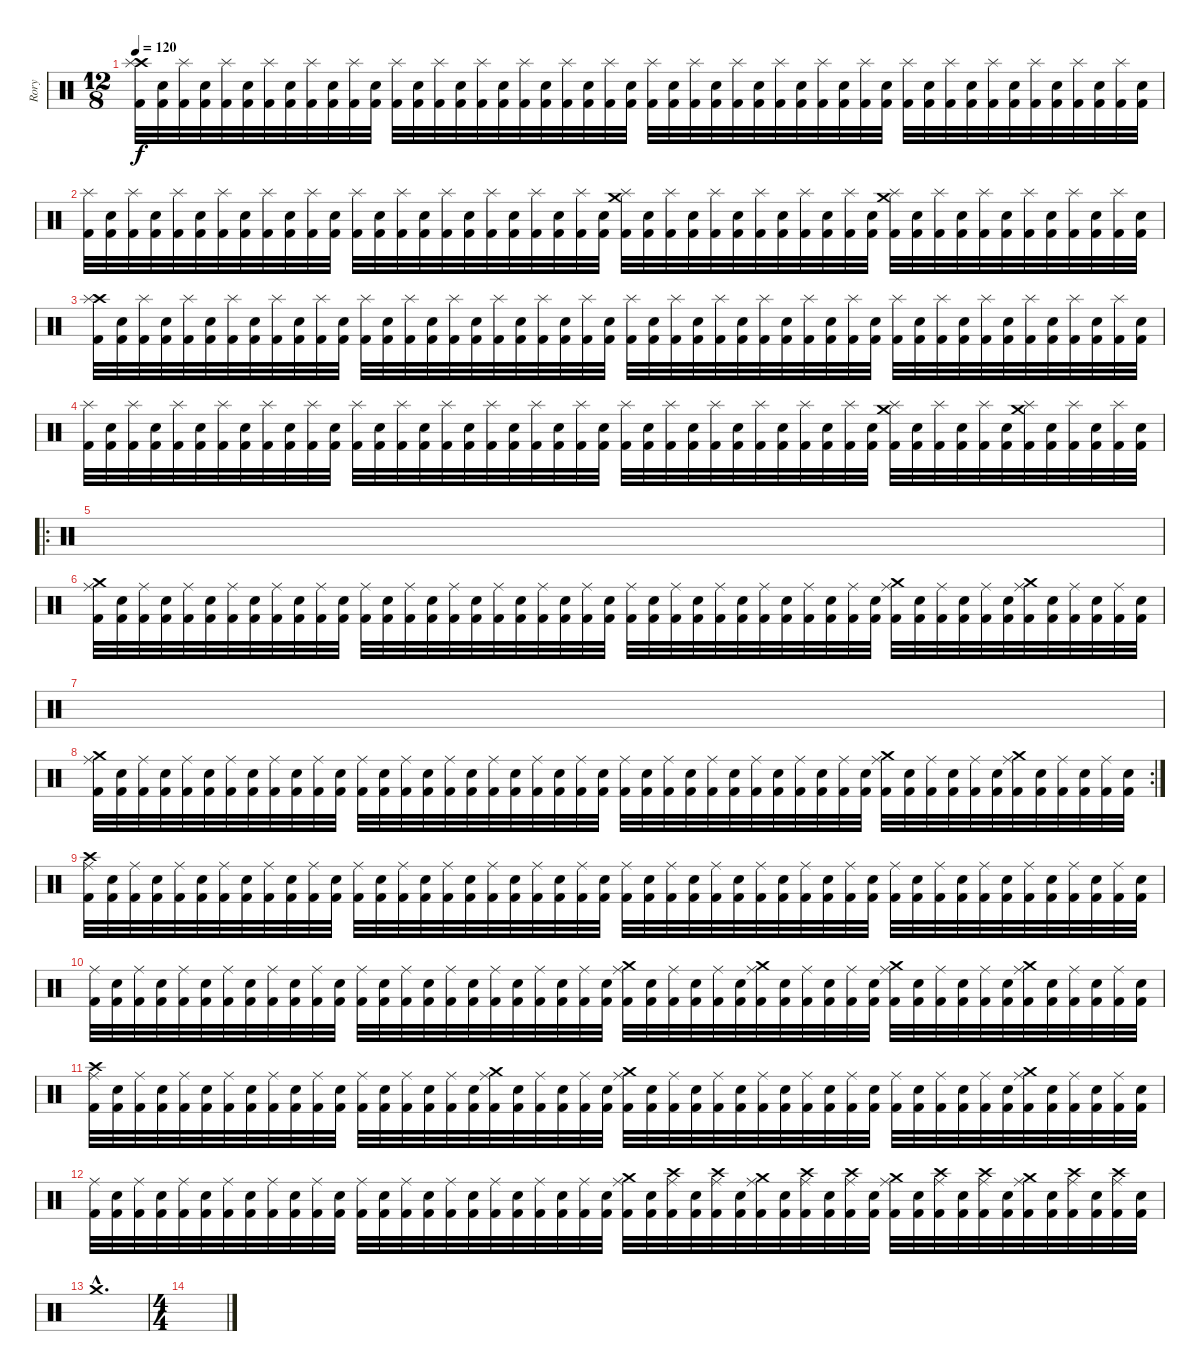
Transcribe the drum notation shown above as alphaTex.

\track ("Rory" "Rory") {instrument percussion}
\staff {score}
\articulation defaults
\ts (12 8)
\tempo 120
\clef neutral
\ks c
("Kick (hit) 2" "Crash high (hit)" "Splash (hit)").32{dy f} ("Kick (hit) 2" "Electric Snare (hit)").32 ("Kick (hit) 2" "Splash (hit)").32 ("Kick (hit) 2" "Electric Snare (hit)").32 ("Kick (hit) 2" "Splash (hit)").32 ("Kick (hit) 2" "Electric Snare (hit)").32 ("Kick (hit) 2" "Splash (hit)").32 ("Kick (hit) 2" "Electric Snare (hit)").32 ("Kick (hit) 2" "Splash (hit)").32 ("Kick (hit) 2" "Electric Snare (hit)").32 ("Kick (hit) 2" "Splash (hit)").32 ("Kick (hit) 2" "Electric Snare (hit)").32 ("Kick (hit) 2" "Splash (hit)").32 ("Kick (hit) 2" "Electric Snare (hit)").32 ("Kick (hit) 2" "Splash (hit)").32 ("Kick (hit) 2" "Electric Snare (hit)").32 ("Kick (hit) 2" "Splash (hit)").32 ("Kick (hit) 2" "Electric Snare (hit)").32 ("Kick (hit) 2" "Splash (hit)").32 ("Kick (hit) 2" "Electric Snare (hit)").32 ("Kick (hit) 2" "Splash (hit)").32 ("Kick (hit) 2" "Electric Snare (hit)").32 ("Kick (hit) 2" "Splash (hit)").32 ("Kick (hit) 2" "Electric Snare (hit)").32 ("Kick (hit) 2" "Splash (hit)").32 ("Kick (hit) 2" "Electric Snare (hit)").32 ("Kick (hit) 2" "Splash (hit)").32 ("Kick (hit) 2" "Electric Snare (hit)").32 ("Kick (hit) 2" "Splash (hit)").32 ("Kick (hit) 2" "Electric Snare (hit)").32 ("Kick (hit) 2" "Splash (hit)").32 ("Kick (hit) 2" "Electric Snare (hit)").32 ("Kick (hit) 2" "Splash (hit)").32 ("Kick (hit) 2" "Electric Snare (hit)").32 ("Kick (hit) 2" "Splash (hit)").32 ("Kick (hit) 2" "Electric Snare (hit)").32 ("Kick (hit) 2" "Splash (hit)").32 ("Kick (hit) 2" "Electric Snare (hit)").32 ("Kick (hit) 2" "Splash (hit)").32 ("Kick (hit) 2" "Electric Snare (hit)").32 ("Kick (hit) 2" "Splash (hit)").32 ("Kick (hit) 2" "Electric Snare (hit)").32 ("Kick (hit) 2" "Splash (hit)").32 ("Kick (hit) 2" "Electric Snare (hit)").32 ("Kick (hit) 2" "Splash (hit)").32 ("Kick (hit) 2" "Electric Snare (hit)").32 ("Kick (hit) 2" "Splash (hit)").32 ("Kick (hit) 2" "Electric Snare (hit)").32 |
("Kick (hit) 2" "Splash (hit)").32 ("Kick (hit) 2" "Electric Snare (hit)").32 ("Kick (hit) 2" "Splash (hit)").32 ("Kick (hit) 2" "Electric Snare (hit)").32 ("Kick (hit) 2" "Splash (hit)").32 ("Kick (hit) 2" "Electric Snare (hit)").32 ("Kick (hit) 2" "Splash (hit)").32 ("Kick (hit) 2" "Electric Snare (hit)").32 ("Kick (hit) 2" "Splash (hit)").32 ("Kick (hit) 2" "Electric Snare (hit)").32 ("Kick (hit) 2" "Splash (hit)").32 ("Kick (hit) 2" "Electric Snare (hit)").32 ("Kick (hit) 2" "Splash (hit)").32 ("Kick (hit) 2" "Electric Snare (hit)").32 ("Kick (hit) 2" "Splash (hit)").32 ("Kick (hit) 2" "Electric Snare (hit)").32 ("Kick (hit) 2" "Splash (hit)").32 ("Kick (hit) 2" "Electric Snare (hit)").32 ("Kick (hit) 2" "Splash (hit)").32 ("Kick (hit) 2" "Electric Snare (hit)").32 ("Kick (hit) 2" "Splash (hit)").32 ("Kick (hit) 2" "Electric Snare (hit)").32 ("Kick (hit) 2" "Splash (hit)").32 ("Kick (hit) 2" "Electric Snare (hit)").32 ("Kick (hit) 2" "Crash medium (hit)" "Splash (hit)").32 ("Kick (hit) 2" "Electric Snare (hit)").32 ("Kick (hit) 2" "Splash (hit)").32 ("Kick (hit) 2" "Electric Snare (hit)").32 ("Kick (hit) 2" "Splash (hit)").32 ("Kick (hit) 2" "Electric Snare (hit)").32 ("Kick (hit) 2" "Splash (hit)").32 ("Kick (hit) 2" "Electric Snare (hit)").32 ("Kick (hit) 2" "Splash (hit)").32 ("Kick (hit) 2" "Electric Snare (hit)").32 ("Kick (hit) 2" "Splash (hit)").32 ("Kick (hit) 2" "Electric Snare (hit)").32 ("Kick (hit) 2" "Crash medium (hit)" "Splash (hit)").32 ("Kick (hit) 2" "Electric Snare (hit)").32 ("Kick (hit) 2" "Splash (hit)").32 ("Kick (hit) 2" "Electric Snare (hit)").32 ("Kick (hit) 2" "Splash (hit)").32 ("Kick (hit) 2" "Electric Snare (hit)").32 ("Kick (hit) 2" "Splash (hit)").32 ("Kick (hit) 2" "Electric Snare (hit)").32 ("Kick (hit) 2" "Splash (hit)").32 ("Kick (hit) 2" "Electric Snare (hit)").32 ("Kick (hit) 2" "Splash (hit)").32 ("Kick (hit) 2" "Electric Snare (hit)").32 |
("Kick (hit) 2" "Crash high (hit)" "Splash (hit)").32 ("Kick (hit) 2" "Electric Snare (hit)").32 ("Kick (hit) 2" "Splash (hit)").32 ("Kick (hit) 2" "Electric Snare (hit)").32 ("Kick (hit) 2" "Splash (hit)").32 ("Kick (hit) 2" "Electric Snare (hit)").32 ("Kick (hit) 2" "Splash (hit)").32 ("Kick (hit) 2" "Electric Snare (hit)").32 ("Kick (hit) 2" "Splash (hit)").32 ("Kick (hit) 2" "Electric Snare (hit)").32 ("Kick (hit) 2" "Splash (hit)").32 ("Kick (hit) 2" "Electric Snare (hit)").32 ("Kick (hit) 2" "Splash (hit)").32 ("Kick (hit) 2" "Electric Snare (hit)").32 ("Kick (hit) 2" "Splash (hit)").32 ("Kick (hit) 2" "Electric Snare (hit)").32 ("Kick (hit) 2" "Splash (hit)").32 ("Kick (hit) 2" "Electric Snare (hit)").32 ("Kick (hit) 2" "Splash (hit)").32 ("Kick (hit) 2" "Electric Snare (hit)").32 ("Kick (hit) 2" "Splash (hit)").32 ("Kick (hit) 2" "Electric Snare (hit)").32 ("Kick (hit) 2" "Splash (hit)").32 ("Kick (hit) 2" "Electric Snare (hit)").32 ("Kick (hit) 2" "Splash (hit)").32 ("Kick (hit) 2" "Electric Snare (hit)").32 ("Kick (hit) 2" "Splash (hit)").32 ("Kick (hit) 2" "Electric Snare (hit)").32 ("Kick (hit) 2" "Splash (hit)").32 ("Kick (hit) 2" "Electric Snare (hit)").32 ("Kick (hit) 2" "Splash (hit)").32 ("Kick (hit) 2" "Electric Snare (hit)").32 ("Kick (hit) 2" "Splash (hit)").32 ("Kick (hit) 2" "Electric Snare (hit)").32 ("Kick (hit) 2" "Splash (hit)").32 ("Kick (hit) 2" "Electric Snare (hit)").32 ("Kick (hit) 2" "Splash (hit)").32 ("Kick (hit) 2" "Electric Snare (hit)").32 ("Kick (hit) 2" "Splash (hit)").32 ("Kick (hit) 2" "Electric Snare (hit)").32 ("Kick (hit) 2" "Splash (hit)").32 ("Kick (hit) 2" "Electric Snare (hit)").32 ("Kick (hit) 2" "Splash (hit)").32 ("Kick (hit) 2" "Electric Snare (hit)").32 ("Kick (hit) 2" "Splash (hit)").32 ("Kick (hit) 2" "Electric Snare (hit)").32 ("Kick (hit) 2" "Splash (hit)").32 ("Kick (hit) 2" "Electric Snare (hit)").32 |
("Kick (hit) 2" "Splash (hit)").32 ("Kick (hit) 2" "Electric Snare (hit)").32 ("Kick (hit) 2" "Splash (hit)").32 ("Kick (hit) 2" "Electric Snare (hit)").32 ("Kick (hit) 2" "Splash (hit)").32 ("Kick (hit) 2" "Electric Snare (hit)").32 ("Kick (hit) 2" "Splash (hit)").32 ("Kick (hit) 2" "Electric Snare (hit)").32 ("Kick (hit) 2" "Splash (hit)").32 ("Kick (hit) 2" "Electric Snare (hit)").32 ("Kick (hit) 2" "Splash (hit)").32 ("Kick (hit) 2" "Electric Snare (hit)").32 ("Kick (hit) 2" "Splash (hit)").32 ("Kick (hit) 2" "Electric Snare (hit)").32 ("Kick (hit) 2" "Splash (hit)").32 ("Kick (hit) 2" "Electric Snare (hit)").32 ("Kick (hit) 2" "Splash (hit)").32 ("Kick (hit) 2" "Electric Snare (hit)").32 ("Kick (hit) 2" "Splash (hit)").32 ("Kick (hit) 2" "Electric Snare (hit)").32 ("Kick (hit) 2" "Splash (hit)").32 ("Kick (hit) 2" "Electric Snare (hit)").32 ("Kick (hit) 2" "Splash (hit)").32 ("Kick (hit) 2" "Electric Snare (hit)").32 ("Kick (hit) 2" "Splash (hit)").32 ("Kick (hit) 2" "Electric Snare (hit)").32 ("Kick (hit) 2" "Splash (hit)").32 ("Kick (hit) 2" "Electric Snare (hit)").32 ("Kick (hit) 2" "Splash (hit)").32 ("Kick (hit) 2" "Electric Snare (hit)").32 ("Kick (hit) 2" "Splash (hit)").32 ("Kick (hit) 2" "Electric Snare (hit)").32 ("Kick (hit) 2" "Splash (hit)").32 ("Kick (hit) 2" "Electric Snare (hit)").32 ("Kick (hit) 2" "Splash (hit)").32 ("Kick (hit) 2" "Electric Snare (hit)").32 ("Kick (hit) 2" "Crash medium (hit)" "Splash (hit)").32 ("Kick (hit) 2" "Electric Snare (hit)").32 ("Kick (hit) 2" "Splash (hit)").32 ("Kick (hit) 2" "Electric Snare (hit)").32 ("Kick (hit) 2" "Splash (hit)").32 ("Kick (hit) 2" "Electric Snare (hit)").32 ("Kick (hit) 2" "Crash medium (hit)" "Splash (hit)").32 ("Kick (hit) 2" "Electric Snare (hit)").32 ("Kick (hit) 2" "Splash (hit)").32 ("Kick (hit) 2" "Electric Snare (hit)").32 ("Kick (hit) 2" "Splash (hit)").32 ("Kick (hit) 2" "Electric Snare (hit)").32 |
\ro
|
("Kick (hit) 2" "Crash medium (hit)" "Ride (middle)").32 ("Kick (hit) 2" "Electric Snare (hit)").32 ("Kick (hit) 2" "Ride (middle)").32 ("Kick (hit) 2" "Electric Snare (hit)").32 ("Kick (hit) 2" "Ride (middle)").32 ("Kick (hit) 2" "Electric Snare (hit)").32 ("Kick (hit) 2" "Ride (middle)").32 ("Kick (hit) 2" "Electric Snare (hit)").32 ("Kick (hit) 2" "Ride (middle)").32 ("Kick (hit) 2" "Electric Snare (hit)").32 ("Kick (hit) 2" "Ride (middle)").32 ("Kick (hit) 2" "Electric Snare (hit)").32 ("Kick (hit) 2" "Ride (middle)").32 ("Kick (hit) 2" "Electric Snare (hit)").32 ("Kick (hit) 2" "Ride (middle)").32 ("Kick (hit) 2" "Electric Snare (hit)").32 ("Kick (hit) 2" "Ride (middle)").32 ("Kick (hit) 2" "Electric Snare (hit)").32 ("Kick (hit) 2" "Ride (middle)").32 ("Kick (hit) 2" "Electric Snare (hit)").32 ("Kick (hit) 2" "Ride (middle)").32 ("Kick (hit) 2" "Electric Snare (hit)").32 ("Kick (hit) 2" "Ride (middle)").32 ("Kick (hit) 2" "Electric Snare (hit)").32 ("Kick (hit) 2" "Ride (middle)").32 ("Kick (hit) 2" "Electric Snare (hit)").32 ("Kick (hit) 2" "Ride (middle)").32 ("Kick (hit) 2" "Electric Snare (hit)").32 ("Kick (hit) 2" "Ride (middle)").32 ("Kick (hit) 2" "Electric Snare (hit)").32 ("Kick (hit) 2" "Ride (middle)").32 ("Kick (hit) 2" "Electric Snare (hit)").32 ("Kick (hit) 2" "Ride (middle)").32 ("Kick (hit) 2" "Electric Snare (hit)").32 ("Kick (hit) 2" "Ride (middle)").32 ("Kick (hit) 2" "Electric Snare (hit)").32 ("Kick (hit) 2" "Crash medium (hit)" "Ride (middle)").32 ("Kick (hit) 2" "Electric Snare (hit)").32 ("Kick (hit) 2" "Ride (middle)").32 ("Kick (hit) 2" "Electric Snare (hit)").32 ("Kick (hit) 2" "Ride (middle)").32 ("Kick (hit) 2" "Electric Snare (hit)").32 ("Kick (hit) 2" "Crash medium (hit)" "Ride (middle)").32 ("Kick (hit) 2" "Electric Snare (hit)").32 ("Kick (hit) 2" "Ride (middle)").32 ("Kick (hit) 2" "Electric Snare (hit)").32 ("Kick (hit) 2" "Ride (middle)").32 ("Kick (hit) 2" "Electric Snare (hit)").32 |
|
\rc 2
("Kick (hit) 2" "Crash medium (hit)" "Ride (middle)").32 ("Kick (hit) 2" "Electric Snare (hit)").32 ("Kick (hit) 2" "Ride (middle)").32 ("Kick (hit) 2" "Electric Snare (hit)").32 ("Kick (hit) 2" "Ride (middle)").32 ("Kick (hit) 2" "Electric Snare (hit)").32 ("Kick (hit) 2" "Ride (middle)").32 ("Kick (hit) 2" "Electric Snare (hit)").32 ("Kick (hit) 2" "Ride (middle)").32 ("Kick (hit) 2" "Electric Snare (hit)").32 ("Kick (hit) 2" "Ride (middle)").32 ("Kick (hit) 2" "Electric Snare (hit)").32 ("Kick (hit) 2" "Ride (middle)").32 ("Kick (hit) 2" "Electric Snare (hit)").32 ("Kick (hit) 2" "Ride (middle)").32 ("Kick (hit) 2" "Electric Snare (hit)").32 ("Kick (hit) 2" "Ride (middle)").32 ("Kick (hit) 2" "Electric Snare (hit)").32 ("Kick (hit) 2" "Ride (middle)").32 ("Kick (hit) 2" "Electric Snare (hit)").32 ("Kick (hit) 2" "Ride (middle)").32 ("Kick (hit) 2" "Electric Snare (hit)").32 ("Kick (hit) 2" "Ride (middle)").32 ("Kick (hit) 2" "Electric Snare (hit)").32 ("Kick (hit) 2" "Ride (middle)").32 ("Kick (hit) 2" "Electric Snare (hit)").32 ("Kick (hit) 2" "Ride (middle)").32 ("Kick (hit) 2" "Electric Snare (hit)").32 ("Kick (hit) 2" "Ride (middle)").32 ("Kick (hit) 2" "Electric Snare (hit)").32 ("Kick (hit) 2" "Ride (middle)").32 ("Kick (hit) 2" "Electric Snare (hit)").32 ("Kick (hit) 2" "Ride (middle)").32 ("Kick (hit) 2" "Electric Snare (hit)").32 ("Kick (hit) 2" "Ride (middle)").32 ("Kick (hit) 2" "Electric Snare (hit)").32 ("Kick (hit) 2" "Crash medium (hit)" "Ride (middle)").32 ("Kick (hit) 2" "Electric Snare (hit)").32 ("Kick (hit) 2" "Ride (middle)").32 ("Kick (hit) 2" "Electric Snare (hit)").32 ("Kick (hit) 2" "Ride (middle)").32 ("Kick (hit) 2" "Electric Snare (hit)").32 ("Kick (hit) 2" "Crash medium (hit)" "Ride (middle)").32 ("Kick (hit) 2" "Electric Snare (hit)").32 ("Kick (hit) 2" "Ride (middle)").32 ("Kick (hit) 2" "Electric Snare (hit)").32 ("Kick (hit) 2" "Ride (middle)").32 ("Kick (hit) 2" "Electric Snare (hit)").32 |
("Kick (hit) 2" "Crash high (hit)" "Ride (middle)").32 ("Kick (hit) 2" "Electric Snare (hit)").32 ("Kick (hit) 2" "Ride (middle)").32 ("Kick (hit) 2" "Electric Snare (hit)").32 ("Kick (hit) 2" "Ride (middle)").32 ("Kick (hit) 2" "Electric Snare (hit)").32 ("Kick (hit) 2" "Ride (middle)").32 ("Kick (hit) 2" "Electric Snare (hit)").32 ("Kick (hit) 2" "Ride (middle)").32 ("Kick (hit) 2" "Electric Snare (hit)").32 ("Kick (hit) 2" "Ride (middle)").32 ("Kick (hit) 2" "Electric Snare (hit)").32 ("Kick (hit) 2" "Ride (middle)").32 ("Kick (hit) 2" "Electric Snare (hit)").32 ("Kick (hit) 2" "Ride (middle)").32 ("Kick (hit) 2" "Electric Snare (hit)").32 ("Kick (hit) 2" "Ride (middle)").32 ("Kick (hit) 2" "Electric Snare (hit)").32 ("Kick (hit) 2" "Ride (middle)").32 ("Kick (hit) 2" "Electric Snare (hit)").32 ("Kick (hit) 2" "Ride (middle)").32 ("Kick (hit) 2" "Electric Snare (hit)").32 ("Kick (hit) 2" "Ride (middle)").32 ("Kick (hit) 2" "Electric Snare (hit)").32 ("Kick (hit) 2" "Ride (middle)").32 ("Kick (hit) 2" "Electric Snare (hit)").32 ("Kick (hit) 2" "Ride (middle)").32 ("Kick (hit) 2" "Electric Snare (hit)").32 ("Kick (hit) 2" "Ride (middle)").32 ("Kick (hit) 2" "Electric Snare (hit)").32 ("Kick (hit) 2" "Ride (middle)").32 ("Kick (hit) 2" "Electric Snare (hit)").32 ("Kick (hit) 2" "Ride (middle)").32 ("Kick (hit) 2" "Electric Snare (hit)").32 ("Kick (hit) 2" "Ride (middle)").32 ("Kick (hit) 2" "Electric Snare (hit)").32 ("Kick (hit) 2" "Ride (middle)").32 ("Kick (hit) 2" "Electric Snare (hit)").32 ("Kick (hit) 2" "Ride (middle)").32 ("Kick (hit) 2" "Electric Snare (hit)").32 ("Kick (hit) 2" "Ride (middle)").32 ("Kick (hit) 2" "Electric Snare (hit)").32 ("Kick (hit) 2" "Ride (middle)").32 ("Kick (hit) 2" "Electric Snare (hit)").32 ("Kick (hit) 2" "Ride (middle)").32 ("Kick (hit) 2" "Electric Snare (hit)").32 ("Kick (hit) 2" "Ride (middle)").32 ("Kick (hit) 2" "Electric Snare (hit)").32 |
("Kick (hit) 2" "Ride (middle)").32 ("Kick (hit) 2" "Electric Snare (hit)").32 ("Kick (hit) 2" "Ride (middle)").32 ("Kick (hit) 2" "Electric Snare (hit)").32 ("Kick (hit) 2" "Ride (middle)").32 ("Kick (hit) 2" "Electric Snare (hit)").32 ("Kick (hit) 2" "Ride (middle)").32 ("Kick (hit) 2" "Electric Snare (hit)").32 ("Kick (hit) 2" "Ride (middle)").32 ("Kick (hit) 2" "Electric Snare (hit)").32 ("Kick (hit) 2" "Ride (middle)").32 ("Kick (hit) 2" "Electric Snare (hit)").32 ("Kick (hit) 2" "Ride (middle)").32 ("Kick (hit) 2" "Electric Snare (hit)").32 ("Kick (hit) 2" "Ride (middle)").32 ("Kick (hit) 2" "Electric Snare (hit)").32 ("Kick (hit) 2" "Ride (middle)").32 ("Kick (hit) 2" "Electric Snare (hit)").32 ("Kick (hit) 2" "Ride (middle)").32 ("Kick (hit) 2" "Electric Snare (hit)").32 ("Kick (hit) 2" "Ride (middle)").32 ("Kick (hit) 2" "Electric Snare (hit)").32 ("Kick (hit) 2" "Ride (middle)").32 ("Kick (hit) 2" "Electric Snare (hit)").32 ("Kick (hit) 2" "Crash medium (hit)" "Ride (middle)").32 ("Kick (hit) 2" "Electric Snare (hit)").32 ("Kick (hit) 2" "Ride (middle)").32 ("Kick (hit) 2" "Electric Snare (hit)").32 ("Kick (hit) 2" "Ride (middle)").32 ("Kick (hit) 2" "Electric Snare (hit)").32 ("Kick (hit) 2" "Crash medium (hit)" "Ride (middle)").32 ("Kick (hit) 2" "Electric Snare (hit)").32 ("Kick (hit) 2" "Ride (middle)").32 ("Kick (hit) 2" "Electric Snare (hit)").32 ("Kick (hit) 2" "Ride (middle)").32 ("Kick (hit) 2" "Electric Snare (hit)").32 ("Kick (hit) 2" "Crash medium (hit)" "Ride (middle)").32 ("Kick (hit) 2" "Electric Snare (hit)").32 ("Kick (hit) 2" "Ride (middle)").32 ("Kick (hit) 2" "Electric Snare (hit)").32 ("Kick (hit) 2" "Ride (middle)").32 ("Kick (hit) 2" "Electric Snare (hit)").32 ("Kick (hit) 2" "Crash medium (hit)" "Ride (middle)").32 ("Kick (hit) 2" "Electric Snare (hit)").32 ("Kick (hit) 2" "Ride (middle)").32 ("Kick (hit) 2" "Electric Snare (hit)").32 ("Kick (hit) 2" "Ride (middle)").32 ("Kick (hit) 2" "Electric Snare (hit)").32 |
("Kick (hit) 2" "Crash high (hit)" "Ride (middle)").32 ("Kick (hit) 2" "Electric Snare (hit)").32 ("Kick (hit) 2" "Ride (middle)").32 ("Kick (hit) 2" "Electric Snare (hit)").32 ("Kick (hit) 2" "Ride (middle)").32 ("Kick (hit) 2" "Electric Snare (hit)").32 ("Kick (hit) 2" "Ride (middle)").32 ("Kick (hit) 2" "Electric Snare (hit)").32 ("Kick (hit) 2" "Ride (middle)").32 ("Kick (hit) 2" "Electric Snare (hit)").32 ("Kick (hit) 2" "Ride (middle)").32 ("Kick (hit) 2" "Electric Snare (hit)").32 ("Kick (hit) 2" "Ride (middle)").32 ("Kick (hit) 2" "Electric Snare (hit)").32 ("Kick (hit) 2" "Ride (middle)").32 ("Kick (hit) 2" "Electric Snare (hit)").32 ("Kick (hit) 2" "Ride (middle)").32 ("Kick (hit) 2" "Electric Snare (hit)").32 ("Kick (hit) 2" "Crash medium (hit)" "Ride (middle)").32 ("Kick (hit) 2" "Electric Snare (hit)").32 ("Kick (hit) 2" "Ride (middle)").32 ("Kick (hit) 2" "Electric Snare (hit)").32 ("Kick (hit) 2" "Ride (middle)").32 ("Kick (hit) 2" "Electric Snare (hit)").32 ("Kick (hit) 2" "Crash medium (hit)" "Ride (middle)").32 ("Kick (hit) 2" "Electric Snare (hit)").32 ("Kick (hit) 2" "Ride (middle)").32 ("Kick (hit) 2" "Electric Snare (hit)").32 ("Kick (hit) 2" "Ride (middle)").32 ("Kick (hit) 2" "Electric Snare (hit)").32 ("Kick (hit) 2" "Ride (middle)").32 ("Kick (hit) 2" "Electric Snare (hit)").32 ("Kick (hit) 2" "Ride (middle)").32 ("Kick (hit) 2" "Electric Snare (hit)").32 ("Kick (hit) 2" "Ride (middle)").32 ("Kick (hit) 2" "Electric Snare (hit)").32 ("Kick (hit) 2" "Ride (middle)").32 ("Kick (hit) 2" "Electric Snare (hit)").32 ("Kick (hit) 2" "Ride (middle)").32 ("Kick (hit) 2" "Electric Snare (hit)").32 ("Kick (hit) 2" "Ride (middle)").32 ("Kick (hit) 2" "Electric Snare (hit)").32 ("Kick (hit) 2" "Crash medium (hit)" "Ride (middle)").32 ("Kick (hit) 2" "Electric Snare (hit)").32 ("Kick (hit) 2" "Ride (middle)").32 ("Kick (hit) 2" "Electric Snare (hit)").32 ("Kick (hit) 2" "Ride (middle)").32 ("Kick (hit) 2" "Electric Snare (hit)").32 |
("Kick (hit) 2" "Ride (middle)").32 ("Kick (hit) 2" "Electric Snare (hit)").32 ("Kick (hit) 2" "Ride (middle)").32 ("Kick (hit) 2" "Electric Snare (hit)").32 ("Kick (hit) 2" "Ride (middle)").32 ("Kick (hit) 2" "Electric Snare (hit)").32 ("Kick (hit) 2" "Ride (middle)").32 ("Kick (hit) 2" "Electric Snare (hit)").32 ("Kick (hit) 2" "Ride (middle)").32 ("Kick (hit) 2" "Electric Snare (hit)").32 ("Kick (hit) 2" "Ride (middle)").32 ("Kick (hit) 2" "Electric Snare (hit)").32 ("Kick (hit) 2" "Ride (middle)").32 ("Kick (hit) 2" "Electric Snare (hit)").32 ("Kick (hit) 2" "Ride (middle)").32 ("Kick (hit) 2" "Electric Snare (hit)").32 ("Kick (hit) 2" "Ride (middle)").32 ("Kick (hit) 2" "Electric Snare (hit)").32 ("Kick (hit) 2" "Ride (middle)").32 ("Kick (hit) 2" "Electric Snare (hit)").32 ("Kick (hit) 2" "Ride (middle)").32 ("Kick (hit) 2" "Electric Snare (hit)").32 ("Kick (hit) 2" "Ride (middle)").32 ("Kick (hit) 2" "Electric Snare (hit)").32 ("Kick (hit) 2" "Crash medium (hit)" "Ride (middle)").32 ("Kick (hit) 2" "Electric Snare (hit)").32 ("Kick (hit) 2" "Crash high (hit)" "Ride (middle)").32 ("Kick (hit) 2" "Electric Snare (hit)").32 ("Kick (hit) 2" "Crash high (hit)" "Ride (middle)").32 ("Kick (hit) 2" "Electric Snare (hit)").32 ("Kick (hit) 2" "Crash medium (hit)" "Ride (middle)").32 ("Kick (hit) 2" "Electric Snare (hit)").32 ("Kick (hit) 2" "Crash high (hit)" "Ride (middle)").32 ("Kick (hit) 2" "Electric Snare (hit)").32 ("Kick (hit) 2" "Crash high (hit)" "Ride (middle)").32 ("Kick (hit) 2" "Electric Snare (hit)").32 ("Kick (hit) 2" "Crash medium (hit)" "Ride (middle)").32 ("Kick (hit) 2" "Electric Snare (hit)").32 ("Kick (hit) 2" "Crash high (hit)" "Ride (middle)").32 ("Kick (hit) 2" "Electric Snare (hit)").32 ("Kick (hit) 2" "Crash high (hit)" "Ride (middle)").32 ("Kick (hit) 2" "Electric Snare (hit)").32 ("Kick (hit) 2" "Crash medium (hit)" "Ride (middle)").32 ("Kick (hit) 2" "Electric Snare (hit)").32 ("Kick (hit) 2" "Crash high (hit)" "Ride (middle)").32 ("Kick (hit) 2" "Electric Snare (hit)").32 ("Kick (hit) 2" "Crash high (hit)" "Ride (middle)").32 ("Kick (hit) 2" "Electric Snare (hit)").32 |
"Crash medium (hit)"{hac}.1{d} |
\ts (4 4)
